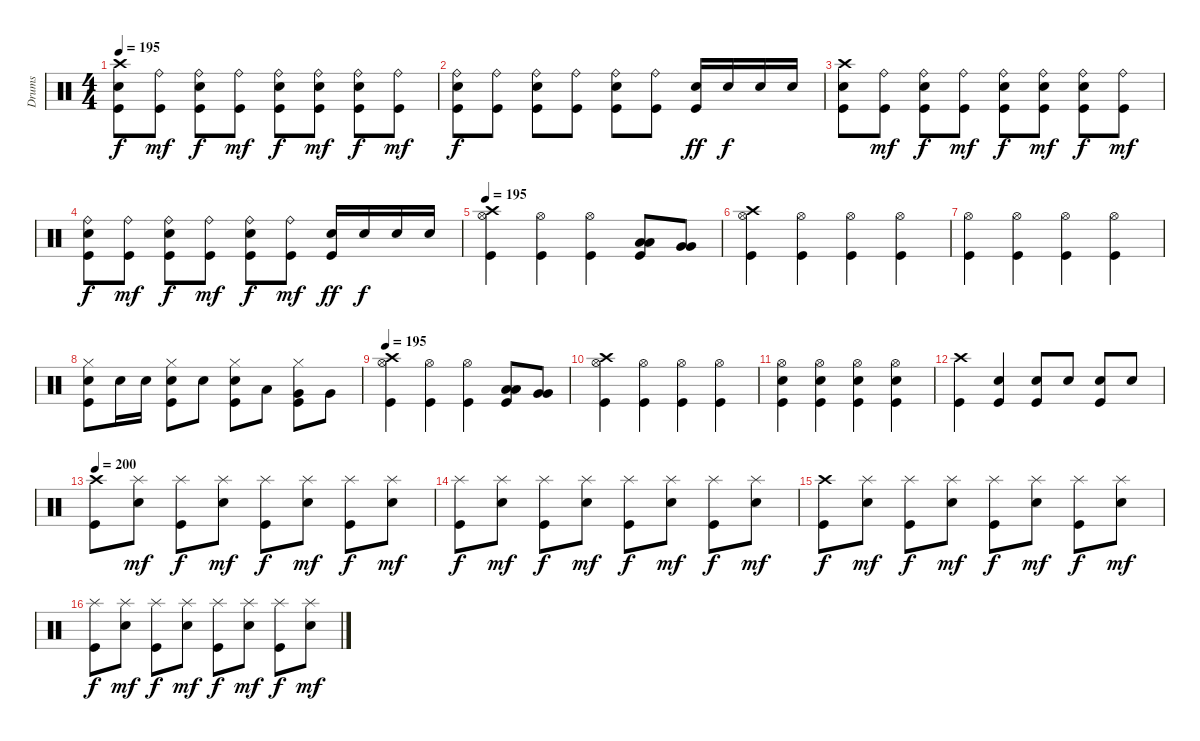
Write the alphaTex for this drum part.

\track ("Drums" "Drums") {instrument percussion}
\staff {score}
\articulation defaults
\ts (4 4)
\tempo 195
\clef neutral
\ks c
("Crash high (hit)" "Electric Snare (hit)" "Kick (hit)").8{dy f} ("Ride (bell)" "Kick (hit)").8{dy mf} ("Ride (bell)" "Electric Snare (hit)" "Kick (hit)").8{dy f} ("Ride (bell)" "Kick (hit)").8{dy mf} ("Ride (bell)" "Electric Snare (hit)" "Kick (hit)").8{dy f} ("Ride (bell)" "Electric Snare (hit)" "Kick (hit)").8{dy mf} ("Ride (bell)" "Electric Snare (hit)" "Kick (hit)").8{dy f} ("Ride (bell)" "Kick (hit)").8{dy mf} |
("Ride (bell)" "Electric Snare (hit)" "Kick (hit)").8{dy f} ("Ride (bell)" "Kick (hit)").8 ("Ride (bell)" "Electric Snare (hit)" "Kick (hit)").8 ("Ride (bell)" "Kick (hit)").8 ("Ride (bell)" "Electric Snare (hit)" "Kick (hit)").8 ("Ride (bell)" "Kick (hit)").8 ("Electric Snare (hit)" "Kick (hit)").16{dy ff} "Electric Snare (hit)".16{dy f} "Electric Snare (hit)".16 "Electric Snare (hit)".16 |
("Crash high (hit)" "Electric Snare (hit)" "Kick (hit)").8 ("Ride (bell)" "Kick (hit)").8{dy mf} ("Ride (bell)" "Electric Snare (hit)" "Kick (hit)").8{dy f} ("Ride (bell)" "Kick (hit)").8{dy mf} ("Ride (bell)" "Electric Snare (hit)" "Kick (hit)").8{dy f} ("Ride (bell)" "Electric Snare (hit)" "Kick (hit)").8{dy mf} ("Ride (bell)" "Electric Snare (hit)" "Kick (hit)").8{dy f} ("Ride (bell)" "Kick (hit)").8{dy mf} |
("Ride (bell)" "Electric Snare (hit)" "Kick (hit)").8{dy f} ("Ride (bell)" "Kick (hit)").8{dy mf} ("Ride (bell)" "Electric Snare (hit)" "Kick (hit)").8{dy f} ("Ride (bell)" "Kick (hit)").8{dy mf} ("Ride (bell)" "Electric Snare (hit)" "Kick (hit)").8{dy f} ("Ride (bell)" "Kick (hit)").8{dy mf} ("Electric Snare (hit)" "Kick (hit)").16{dy ff} "Electric Snare (hit)".16{dy f} "Electric Snare (hit)".16 "Electric Snare (hit)".16 |
\tempo 195
("Crash high (hit)" "Hi-Hat (open)" "Kick (hit)").4 ("Hi-Hat (open)" "Kick (hit)").4 ("Hi-Hat (open)" "Kick (hit)").4 ("Low Tom (hit)" "Low Tom (hit)" "Kick (hit)").8 ("Very Low Tom (hit)" "Very Low Tom (hit)").8 |
("Crash high (hit)" "Hi-Hat (open)" "Kick (hit)").4 ("Hi-Hat (open)" "Kick (hit)").4 ("Hi-Hat (open)" "Kick (hit)").4 ("Hi-Hat (open)" "Kick (hit)").4 |
("Hi-Hat (open)" "Kick (hit)").4 ("Hi-Hat (open)" "Kick (hit)").4 ("Hi-Hat (open)" "Kick (hit)").4 ("Hi-Hat (open)" "Kick (hit)").4 |
("Hi-Hat (closed)" "Electric Snare (hit)" "Kick (hit)").8 "Electric Snare (hit)".16 "Electric Snare (hit)".16 ("Hi-Hat (closed)" "Electric Snare (hit)" "Kick (hit)").8 "Electric Snare (hit)".8 ("Hi-Hat (closed)" "Electric Snare (hit)" "Kick (hit)").8 "Low Tom (hit)".8 ("Hi-Hat (closed)" "Very Low Tom (hit)" "Kick (hit)").8 "Very Low Tom (hit)".8 |
\tempo 195
("Crash high (hit)" "Hi-Hat (open)" "Kick (hit)").4 ("Hi-Hat (open)" "Kick (hit)").4 ("Hi-Hat (open)" "Kick (hit)").4 ("Low Tom (hit)" "Low Tom (hit)" "Kick (hit)").8 ("Very Low Tom (hit)" "Very Low Tom (hit)").8 |
("Crash high (hit)" "Hi-Hat (open)" "Kick (hit)").4 ("Hi-Hat (open)" "Kick (hit)").4 ("Hi-Hat (open)" "Kick (hit)").4 ("Hi-Hat (open)" "Kick (hit)").4 |
("Hi-Hat (open)" "Electric Snare (hit)" "Kick (hit)").4 ("Hi-Hat (open)" "Electric Snare (hit)" "Kick (hit)").4 ("Hi-Hat (open)" "Electric Snare (hit)" "Kick (hit)").4 ("Hi-Hat (open)" "Electric Snare (hit)" "Kick (hit)").4 |
("Crash high (hit)" "Kick (hit)").4 ("Electric Snare (hit)" "Kick (hit)").4 ("Electric Snare (hit)" "Kick (hit)").8 "Electric Snare (hit)".8 ("Electric Snare (hit)" "Kick (hit)").8 "Electric Snare (hit)".8 |
\tempo 200
("Crash high (hit)" "Kick (hit)").8 ("Splash (hit)" "Electric Snare (hit)").8{dy mf} ("Splash (hit)" "Kick (hit)").8{dy f} ("Splash (hit)" "Electric Snare (hit)").8{dy mf} ("Splash (hit)" "Kick (hit)").8{dy f} ("Splash (hit)" "Electric Snare (hit)").8{dy mf} ("Splash (hit)" "Kick (hit)").8{dy f} ("Splash (hit)" "Electric Snare (hit)").8{dy mf} |
("Splash (hit)" "Kick (hit)").8{dy f} ("Splash (hit)" "Electric Snare (hit)").8{dy mf} ("Splash (hit)" "Kick (hit)").8{dy f} ("Splash (hit)" "Electric Snare (hit)").8{dy mf} ("Splash (hit)" "Kick (hit)").8{dy f} ("Splash (hit)" "Electric Snare (hit)").8{dy mf} ("Splash (hit)" "Kick (hit)").8{dy f} ("Splash (hit)" "Electric Snare (hit)").8{dy mf} |
("Crash high (hit)" "Kick (hit)").8{dy f} ("Splash (hit)" "Electric Snare (hit)").8{dy mf} ("Splash (hit)" "Kick (hit)").8{dy f} ("Splash (hit)" "Electric Snare (hit)").8{dy mf} ("Splash (hit)" "Kick (hit)").8{dy f} ("Splash (hit)" "Electric Snare (hit)").8{dy mf} ("Splash (hit)" "Kick (hit)").8{dy f} ("Splash (hit)" "Electric Snare (hit)").8{dy mf} |
("Splash (hit)" "Kick (hit)").8{dy f} ("Splash (hit)" "Electric Snare (hit)").8{dy mf} ("Splash (hit)" "Kick (hit)").8{dy f} ("Splash (hit)" "Electric Snare (hit)").8{dy mf} ("Splash (hit)" "Kick (hit)").8{dy f} ("Splash (hit)" "Electric Snare (hit)").8{dy mf} ("Splash (hit)" "Kick (hit)").8{dy f} ("Splash (hit)" "Electric Snare (hit)").8{dy mf}
